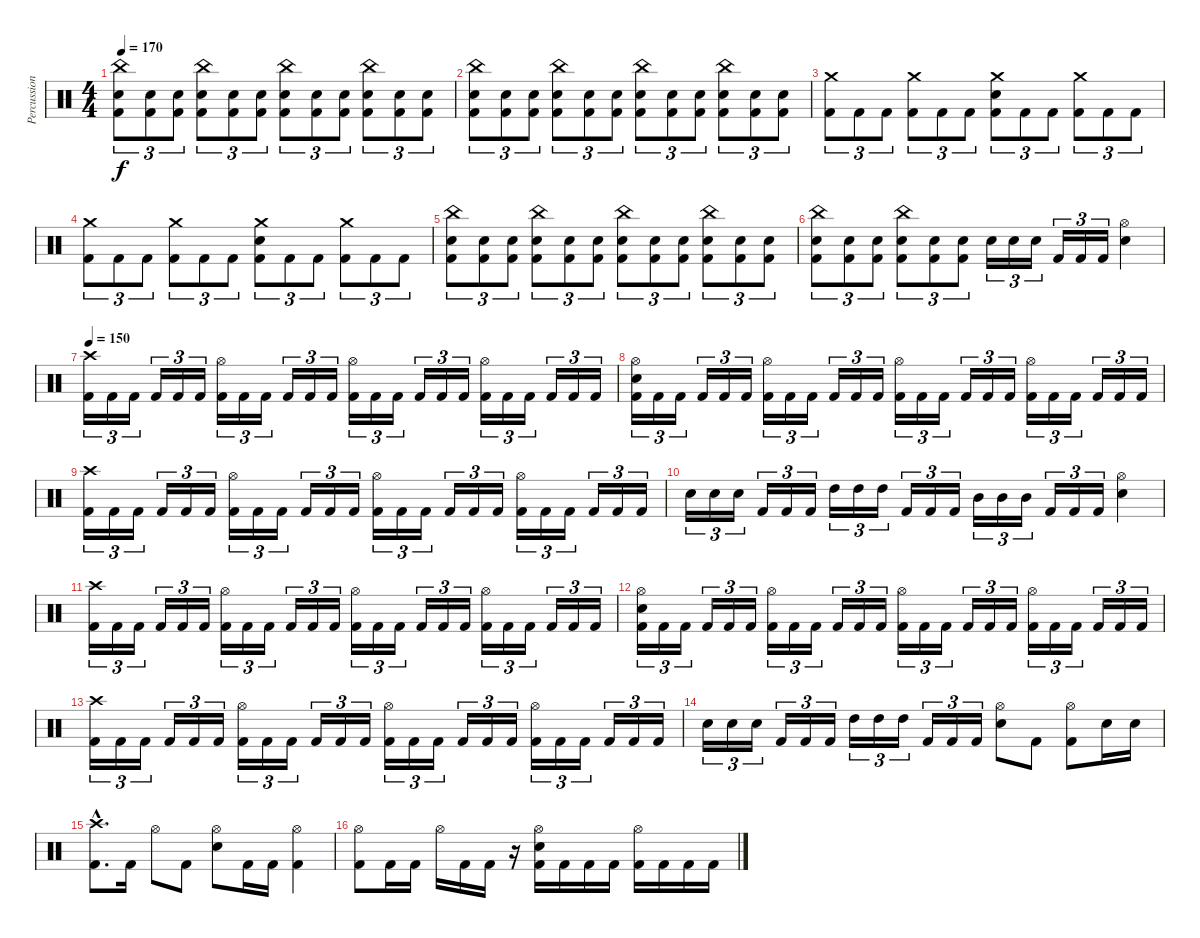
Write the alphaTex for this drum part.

\track ("Percussion" "Percussion") {instrument percussion}
\staff {score}
\articulation defaults
\ts (4 4)
\tempo 170
\clef neutral
\ks c
("China (hit)" "Electric Snare (hit)" "Kick (hit) 2").8{tu (3 2) dy f} ("Electric Snare (hit)" "Kick (hit) 2").8{tu (3 2)} ("Electric Snare (hit)" "Kick (hit) 2").8{tu (3 2)} ("China (hit)" "Electric Snare (hit)" "Kick (hit) 2").8{tu (3 2)} ("Electric Snare (hit)" "Kick (hit) 2").8{tu (3 2)} ("Electric Snare (hit)" "Kick (hit) 2").8{tu (3 2)} ("China (hit)" "Electric Snare (hit)" "Kick (hit) 2").8{tu (3 2)} ("Electric Snare (hit)" "Kick (hit) 2").8{tu (3 2)} ("Electric Snare (hit)" "Kick (hit) 2").8{tu (3 2)} ("China (hit)" "Electric Snare (hit)" "Kick (hit) 2").8{tu (3 2)} ("Electric Snare (hit)" "Kick (hit) 2").8{tu (3 2)} ("Electric Snare (hit)" "Kick (hit) 2").8{tu (3 2)} |
("China (hit)" "Electric Snare (hit)" "Kick (hit) 2").8{tu (3 2)} ("Electric Snare (hit)" "Kick (hit) 2").8{tu (3 2)} ("Electric Snare (hit)" "Kick (hit) 2").8{tu (3 2)} ("China (hit)" "Electric Snare (hit)" "Kick (hit) 2").8{tu (3 2)} ("Electric Snare (hit)" "Kick (hit) 2").8{tu (3 2)} ("Electric Snare (hit)" "Kick (hit) 2").8{tu (3 2)} ("China (hit)" "Electric Snare (hit)" "Kick (hit) 2").8{tu (3 2)} ("Electric Snare (hit)" "Kick (hit) 2").8{tu (3 2)} ("Electric Snare (hit)" "Kick (hit) 2").8{tu (3 2)} ("China (hit)" "Electric Snare (hit)" "Kick (hit) 2").8{tu (3 2)} ("Electric Snare (hit)" "Kick (hit) 2").8{tu (3 2)} ("Electric Snare (hit)" "Kick (hit) 2").8{tu (3 2)} |
("Crash medium (hit)" "Kick (hit) 2").8{tu (3 2)} "Kick (hit) 2".8{tu (3 2)} "Kick (hit) 2".8{tu (3 2)} ("Crash medium (hit)" "Kick (hit) 2").8{tu (3 2)} "Kick (hit) 2".8{tu (3 2)} "Kick (hit) 2".8{tu (3 2)} ("Crash medium (hit)" "Electric Snare (hit)" "Kick (hit) 2").8{tu (3 2)} "Kick (hit) 2".8{tu (3 2)} "Kick (hit) 2".8{tu (3 2)} ("Crash medium (hit)" "Kick (hit) 2").8{tu (3 2)} "Kick (hit) 2".8{tu (3 2)} "Kick (hit) 2".8{tu (3 2)} |
("Crash medium (hit)" "Kick (hit) 2").8{tu (3 2)} "Kick (hit) 2".8{tu (3 2)} "Kick (hit) 2".8{tu (3 2)} ("Crash medium (hit)" "Kick (hit) 2").8{tu (3 2)} "Kick (hit) 2".8{tu (3 2)} "Kick (hit) 2".8{tu (3 2)} ("Crash medium (hit)" "Electric Snare (hit)" "Kick (hit) 2").8{tu (3 2)} "Kick (hit) 2".8{tu (3 2)} "Kick (hit) 2".8{tu (3 2)} ("Crash medium (hit)" "Kick (hit) 2").8{tu (3 2)} "Kick (hit) 2".8{tu (3 2)} "Kick (hit) 2".8{tu (3 2)} |
("China (hit)" "Electric Snare (hit)" "Kick (hit) 2").8{tu (3 2)} ("Electric Snare (hit)" "Kick (hit) 2").8{tu (3 2)} ("Electric Snare (hit)" "Kick (hit) 2").8{tu (3 2)} ("China (hit)" "Electric Snare (hit)" "Kick (hit) 2").8{tu (3 2)} ("Electric Snare (hit)" "Kick (hit) 2").8{tu (3 2)} ("Electric Snare (hit)" "Kick (hit) 2").8{tu (3 2)} ("China (hit)" "Electric Snare (hit)" "Kick (hit) 2").8{tu (3 2)} ("Electric Snare (hit)" "Kick (hit) 2").8{tu (3 2)} ("Electric Snare (hit)" "Kick (hit) 2").8{tu (3 2)} ("China (hit)" "Electric Snare (hit)" "Kick (hit) 2").8{tu (3 2)} ("Electric Snare (hit)" "Kick (hit) 2").8{tu (3 2)} ("Electric Snare (hit)" "Kick (hit) 2").8{tu (3 2)} |
("China (hit)" "Electric Snare (hit)" "Kick (hit) 2").8{tu (3 2)} ("Electric Snare (hit)" "Kick (hit) 2").8{tu (3 2)} ("Electric Snare (hit)" "Kick (hit) 2").8{tu (3 2)} ("China (hit)" "Electric Snare (hit)" "Kick (hit) 2").8{tu (3 2)} ("Electric Snare (hit)" "Kick (hit) 2").8{tu (3 2)} ("Electric Snare (hit)" "Kick (hit) 2").8{tu (3 2)} "Electric Snare (hit)".16{tu (3 2)} "Electric Snare (hit)".16{tu (3 2)} "Electric Snare (hit)".16{tu (3 2)} "Kick (hit) 2".16{tu (3 2)} "Kick (hit) 2".16{tu (3 2)} "Kick (hit) 2".16{tu (3 2)} ("Hi-Hat (open)" "Electric Snare (hit)").4 |
\tempo 150
("Crash high (hit)" "Kick (hit) 2").16{tu (3 2)} "Kick (hit) 2".16{tu (3 2)} "Kick (hit) 2".16{tu (3 2)} "Kick (hit) 2".16{tu (3 2)} "Kick (hit) 2".16{tu (3 2)} "Kick (hit) 2".16{tu (3 2)} ("Hi-Hat (open)" "Kick (hit) 2").16{tu (3 2)} "Kick (hit) 2".16{tu (3 2)} "Kick (hit) 2".16{tu (3 2)} "Kick (hit) 2".16{tu (3 2)} "Kick (hit) 2".16{tu (3 2)} "Kick (hit) 2".16{tu (3 2)} ("Hi-Hat (open)" "Kick (hit) 2").16{tu (3 2)} "Kick (hit) 2".16{tu (3 2)} "Kick (hit) 2".16{tu (3 2)} "Kick (hit) 2".16{tu (3 2)} "Kick (hit) 2".16{tu (3 2)} "Kick (hit) 2".16{tu (3 2)} ("Hi-Hat (open)" "Kick (hit) 2").16{tu (3 2)} "Kick (hit) 2".16{tu (3 2)} "Kick (hit) 2".16{tu (3 2)} "Kick (hit) 2".16{tu (3 2)} "Kick (hit) 2".16{tu (3 2)} "Kick (hit) 2".16{tu (3 2)} |
("Hi-Hat (open)" "Electric Snare (hit)" "Kick (hit) 2").16{tu (3 2)} "Kick (hit) 2".16{tu (3 2)} "Kick (hit) 2".16{tu (3 2)} "Kick (hit) 2".16{tu (3 2)} "Kick (hit) 2".16{tu (3 2)} "Kick (hit) 2".16{tu (3 2)} ("Hi-Hat (open)" "Kick (hit) 2").16{tu (3 2)} "Kick (hit) 2".16{tu (3 2)} "Kick (hit) 2".16{tu (3 2)} "Kick (hit) 2".16{tu (3 2)} "Kick (hit) 2".16{tu (3 2)} "Kick (hit) 2".16{tu (3 2)} ("Hi-Hat (open)" "Kick (hit) 2").16{tu (3 2)} "Kick (hit) 2".16{tu (3 2)} "Kick (hit) 2".16{tu (3 2)} "Kick (hit) 2".16{tu (3 2)} "Kick (hit) 2".16{tu (3 2)} "Kick (hit) 2".16{tu (3 2)} ("Hi-Hat (open)" "Kick (hit) 2").16{tu (3 2)} "Kick (hit) 2".16{tu (3 2)} "Kick (hit) 2".16{tu (3 2)} "Kick (hit) 2".16{tu (3 2)} "Kick (hit) 2".16{tu (3 2)} "Kick (hit) 2".16{tu (3 2)} |
("Crash high (hit)" "Kick (hit) 2").16{tu (3 2)} "Kick (hit) 2".16{tu (3 2)} "Kick (hit) 2".16{tu (3 2)} "Kick (hit) 2".16{tu (3 2)} "Kick (hit) 2".16{tu (3 2)} "Kick (hit) 2".16{tu (3 2)} ("Hi-Hat (open)" "Kick (hit) 2").16{tu (3 2)} "Kick (hit) 2".16{tu (3 2)} "Kick (hit) 2".16{tu (3 2)} "Kick (hit) 2".16{tu (3 2)} "Kick (hit) 2".16{tu (3 2)} "Kick (hit) 2".16{tu (3 2)} ("Hi-Hat (open)" "Kick (hit) 2").16{tu (3 2)} "Kick (hit) 2".16{tu (3 2)} "Kick (hit) 2".16{tu (3 2)} "Kick (hit) 2".16{tu (3 2)} "Kick (hit) 2".16{tu (3 2)} "Kick (hit) 2".16{tu (3 2)} ("Hi-Hat (open)" "Kick (hit) 2").16{tu (3 2)} "Kick (hit) 2".16{tu (3 2)} "Kick (hit) 2".16{tu (3 2)} "Kick (hit) 2".16{tu (3 2)} "Kick (hit) 2".16{tu (3 2)} "Kick (hit) 2".16{tu (3 2)} |
"Electric Snare (hit)".16{tu (3 2)} "Electric Snare (hit)".16{tu (3 2)} "Electric Snare (hit)".16{tu (3 2)} "Kick (hit) 2".16{tu (3 2)} "Kick (hit) 2".16{tu (3 2)} "Kick (hit) 2".16{tu (3 2)} "High Tom (hit)".16{tu (3 2)} "High Tom (hit)".16{tu (3 2)} "High Tom (hit)".16{tu (3 2)} "Kick (hit) 2".16{tu (3 2)} "Kick (hit) 2".16{tu (3 2)} "Kick (hit) 2".16{tu (3 2)} "Mid Tom (hit)".16{tu (3 2)} "Mid Tom (hit)".16{tu (3 2)} "Mid Tom (hit)".16{tu (3 2)} "Kick (hit) 2".16{tu (3 2)} "Kick (hit) 2".16{tu (3 2)} "Kick (hit) 2".16{tu (3 2)} ("Hi-Hat (open)" "Electric Snare (hit)").4 |
("Crash high (hit)" "Kick (hit) 2").16{tu (3 2)} "Kick (hit) 2".16{tu (3 2)} "Kick (hit) 2".16{tu (3 2)} "Kick (hit) 2".16{tu (3 2)} "Kick (hit) 2".16{tu (3 2)} "Kick (hit) 2".16{tu (3 2)} ("Hi-Hat (open)" "Kick (hit) 2").16{tu (3 2)} "Kick (hit) 2".16{tu (3 2)} "Kick (hit) 2".16{tu (3 2)} "Kick (hit) 2".16{tu (3 2)} "Kick (hit) 2".16{tu (3 2)} "Kick (hit) 2".16{tu (3 2)} ("Hi-Hat (open)" "Kick (hit) 2").16{tu (3 2)} "Kick (hit) 2".16{tu (3 2)} "Kick (hit) 2".16{tu (3 2)} "Kick (hit) 2".16{tu (3 2)} "Kick (hit) 2".16{tu (3 2)} "Kick (hit) 2".16{tu (3 2)} ("Hi-Hat (open)" "Kick (hit) 2").16{tu (3 2)} "Kick (hit) 2".16{tu (3 2)} "Kick (hit) 2".16{tu (3 2)} "Kick (hit) 2".16{tu (3 2)} "Kick (hit) 2".16{tu (3 2)} "Kick (hit) 2".16{tu (3 2)} |
("Hi-Hat (open)" "Electric Snare (hit)" "Kick (hit) 2").16{tu (3 2)} "Kick (hit) 2".16{tu (3 2)} "Kick (hit) 2".16{tu (3 2)} "Kick (hit) 2".16{tu (3 2)} "Kick (hit) 2".16{tu (3 2)} "Kick (hit) 2".16{tu (3 2)} ("Hi-Hat (open)" "Kick (hit) 2").16{tu (3 2)} "Kick (hit) 2".16{tu (3 2)} "Kick (hit) 2".16{tu (3 2)} "Kick (hit) 2".16{tu (3 2)} "Kick (hit) 2".16{tu (3 2)} "Kick (hit) 2".16{tu (3 2)} ("Hi-Hat (open)" "Kick (hit) 2").16{tu (3 2)} "Kick (hit) 2".16{tu (3 2)} "Kick (hit) 2".16{tu (3 2)} "Kick (hit) 2".16{tu (3 2)} "Kick (hit) 2".16{tu (3 2)} "Kick (hit) 2".16{tu (3 2)} ("Hi-Hat (open)" "Kick (hit) 2").16{tu (3 2)} "Kick (hit) 2".16{tu (3 2)} "Kick (hit) 2".16{tu (3 2)} "Kick (hit) 2".16{tu (3 2)} "Kick (hit) 2".16{tu (3 2)} "Kick (hit) 2".16{tu (3 2)} |
("Crash high (hit)" "Kick (hit) 2").16{tu (3 2)} "Kick (hit) 2".16{tu (3 2)} "Kick (hit) 2".16{tu (3 2)} "Kick (hit) 2".16{tu (3 2)} "Kick (hit) 2".16{tu (3 2)} "Kick (hit) 2".16{tu (3 2)} ("Hi-Hat (open)" "Kick (hit) 2").16{tu (3 2)} "Kick (hit) 2".16{tu (3 2)} "Kick (hit) 2".16{tu (3 2)} "Kick (hit) 2".16{tu (3 2)} "Kick (hit) 2".16{tu (3 2)} "Kick (hit) 2".16{tu (3 2)} ("Hi-Hat (open)" "Kick (hit) 2").16{tu (3 2)} "Kick (hit) 2".16{tu (3 2)} "Kick (hit) 2".16{tu (3 2)} "Kick (hit) 2".16{tu (3 2)} "Kick (hit) 2".16{tu (3 2)} "Kick (hit) 2".16{tu (3 2)} ("Hi-Hat (open)" "Kick (hit) 2").16{tu (3 2)} "Kick (hit) 2".16{tu (3 2)} "Kick (hit) 2".16{tu (3 2)} "Kick (hit) 2".16{tu (3 2)} "Kick (hit) 2".16{tu (3 2)} "Kick (hit) 2".16{tu (3 2)} |
"Electric Snare (hit)".16{tu (3 2)} "Electric Snare (hit)".16{tu (3 2)} "Electric Snare (hit)".16{tu (3 2)} "Kick (hit) 2".16{tu (3 2)} "Kick (hit) 2".16{tu (3 2)} "Kick (hit) 2".16{tu (3 2)} "High Tom (hit)".16{tu (3 2)} "High Tom (hit)".16{tu (3 2)} "High Tom (hit)".16{tu (3 2)} "Kick (hit) 2".16{tu (3 2)} "Kick (hit) 2".16{tu (3 2)} "Kick (hit) 2".16{tu (3 2)} ("Hi-Hat (open)" "Electric Snare (hit)").8 "Kick (hit) 2".8 ("Hi-Hat (open)" "Kick (hit) 2").8 "Electric Snare (hit)".16 "Electric Snare (hit)".16 |
("Crash high (hit)"{hac} "Kick (hit) 2"{hac}).8{d} "Kick (hit) 2".16 "Hi-Hat (open)".8 "Kick (hit) 2".8 ("Hi-Hat (open)" "Electric Snare (hit)").8 "Kick (hit) 2".16 "Kick (hit) 2".16 ("Hi-Hat (open)" "Kick (hit) 2").4 |
("Hi-Hat (open)" "Kick (hit) 2").8 "Kick (hit) 2".16 "Kick (hit) 2".16 "Hi-Hat (open)".16 "Kick (hit) 2".16 "Kick (hit) 2".16 r.16 ("Hi-Hat (open)" "Electric Snare (hit)" "Kick (hit) 2").16 "Kick (hit) 2".16 "Kick (hit) 2".16 "Kick (hit) 2".16 ("Hi-Hat (open)" "Kick (hit) 2").16 "Kick (hit) 2".16 "Kick (hit) 2".16 "Kick (hit) 2".16
